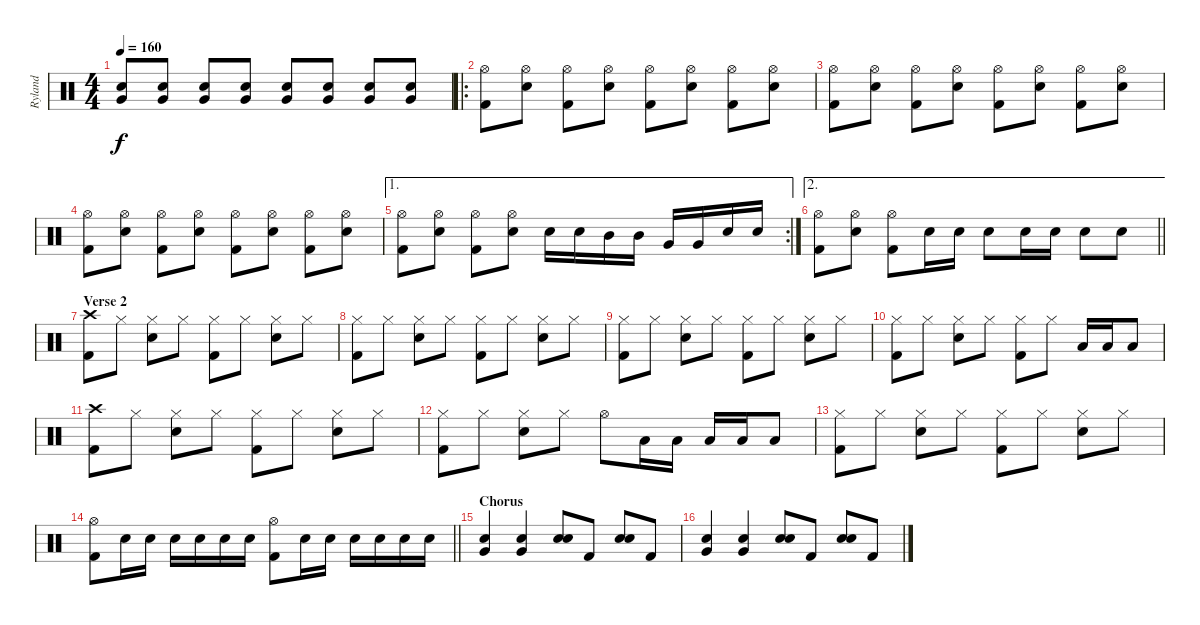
\track ("Ryland" "Ryland") {instrument percussion}
\staff {score}
\articulation defaults
\ts (4 4)
\tempo 160
\clef neutral
\ks c
("Very Low Tom (hit)" "Electric Snare (hit)").8{dy f} ("Very Low Tom (hit)" "Electric Snare (hit)").8 ("Very Low Tom (hit)" "Electric Snare (hit)").8 ("Very Low Tom (hit)" "Electric Snare (hit)").8 ("Very Low Tom (hit)" "Electric Snare (hit)").8 ("Very Low Tom (hit)" "Electric Snare (hit)").8 ("Very Low Tom (hit)" "Electric Snare (hit)").8 ("Very Low Tom (hit)" "Electric Snare (hit)").8 |
\ro
("Hi-Hat (open)" "Kick (hit) 2").8 ("Hi-Hat (open)" "Electric Snare (hit)").8 ("Hi-Hat (open)" "Kick (hit) 2").8 ("Hi-Hat (open)" "Electric Snare (hit)").8 ("Hi-Hat (open)" "Kick (hit) 2").8 ("Hi-Hat (open)" "Electric Snare (hit)").8 ("Hi-Hat (open)" "Kick (hit) 2").8 ("Hi-Hat (open)" "Electric Snare (hit)").8 |
("Hi-Hat (open)" "Kick (hit) 2").8 ("Hi-Hat (open)" "Electric Snare (hit)").8 ("Hi-Hat (open)" "Kick (hit) 2").8 ("Hi-Hat (open)" "Electric Snare (hit)").8 ("Hi-Hat (open)" "Kick (hit) 2").8 ("Hi-Hat (open)" "Electric Snare (hit)").8 ("Hi-Hat (open)" "Kick (hit) 2").8 ("Hi-Hat (open)" "Electric Snare (hit)").8 |
("Hi-Hat (open)" "Kick (hit) 2").8 ("Hi-Hat (open)" "Electric Snare (hit)").8 ("Hi-Hat (open)" "Kick (hit) 2").8 ("Hi-Hat (open)" "Electric Snare (hit)").8 ("Hi-Hat (open)" "Kick (hit) 2").8 ("Hi-Hat (open)" "Electric Snare (hit)").8 ("Hi-Hat (open)" "Kick (hit) 2").8 ("Hi-Hat (open)" "Electric Snare (hit)").8 |
\ae 1
\rc 2
("Hi-Hat (open)" "Kick (hit) 2").8 ("Hi-Hat (open)" "Electric Snare (hit)").8 ("Hi-Hat (open)" "Kick (hit) 2").8 ("Hi-Hat (open)" "Electric Snare (hit)").8 "Electric Snare (hit)".16 "Electric Snare (hit)".16 "Mid Tom (hit)".16 "Mid Tom (hit)".16 "Very Low Tom (hit)".16 "Very Low Tom (hit)".16 "Electric Snare (hit)".16 "Electric Snare (hit)".16 |
\ae 2
\barLineRight lightlight
("Hi-Hat (open)" "Kick (hit) 2").8 ("Hi-Hat (open)" "Electric Snare (hit)").8 ("Hi-Hat (open)" "Kick (hit) 2").8 "Electric Snare (hit)".16 "Electric Snare (hit)".16 "Electric Snare (hit)".8 "Electric Snare (hit)".16 "Electric Snare (hit)".16 "Electric Snare (hit)".8 "Electric Snare (hit)".8 |
\section ("" "Verse 2")
("Crash high (hit)" "Kick (hit) 2").8 "Hi-Hat (closed)".8 ("Hi-Hat (closed)" "Electric Snare (hit)").8 "Hi-Hat (closed)".8 ("Hi-Hat (closed)" "Kick (hit) 2").8 "Hi-Hat (closed)".8 ("Hi-Hat (closed)" "Electric Snare (hit)").8 "Hi-Hat (closed)".8 |
("Hi-Hat (closed)" "Kick (hit) 2").8 "Hi-Hat (closed)".8 ("Hi-Hat (closed)" "Electric Snare (hit)").8 "Hi-Hat (closed)".8 ("Hi-Hat (closed)" "Kick (hit) 2").8 "Hi-Hat (closed)".8 ("Hi-Hat (closed)" "Electric Snare (hit)").8 "Hi-Hat (closed)".8 |
("Hi-Hat (closed)" "Kick (hit) 2").8 "Hi-Hat (closed)".8 ("Hi-Hat (closed)" "Electric Snare (hit)").8 "Hi-Hat (closed)".8 ("Hi-Hat (closed)" "Kick (hit) 2").8 "Hi-Hat (closed)".8 ("Hi-Hat (closed)" "Electric Snare (hit)").8 "Hi-Hat (closed)".8 |
("Hi-Hat (closed)" "Kick (hit) 2").8 "Hi-Hat (closed)".8 ("Hi-Hat (closed)" "Electric Snare (hit)").8 "Hi-Hat (closed)".8 ("Hi-Hat (closed)" "Kick (hit) 2").8 "Hi-Hat (closed)".8 "Low Tom (hit)".16 "Low Tom (hit)".16 "Low Tom (hit)".8 |
("Crash high (hit)" "Kick (hit) 2").8 "Hi-Hat (closed)".8 ("Hi-Hat (closed)" "Electric Snare (hit)").8 "Hi-Hat (closed)".8 ("Hi-Hat (closed)" "Kick (hit) 2").8 "Hi-Hat (closed)".8 ("Hi-Hat (closed)" "Electric Snare (hit)").8 "Hi-Hat (closed)".8 |
("Hi-Hat (closed)" "Kick (hit) 2").8 "Hi-Hat (closed)".8 ("Hi-Hat (closed)" "Electric Snare (hit)").8 "Hi-Hat (closed)".8 "Hi-Hat (open)".8 "Low Tom (hit)".16 "Low Tom (hit)".16 "Low Tom (hit)".16 "Low Tom (hit)".16 "Low Tom (hit)".8 |
("Hi-Hat (closed)" "Kick (hit) 2").8 "Hi-Hat (closed)".8 ("Hi-Hat (closed)" "Electric Snare (hit)").8 "Hi-Hat (closed)".8 ("Hi-Hat (closed)" "Kick (hit) 2").8 "Hi-Hat (closed)".8 ("Hi-Hat (closed)" "Electric Snare (hit)").8 "Hi-Hat (closed)".8 |
\barLineRight lightlight
("Hi-Hat (open)" "Kick (hit) 2").8 "Electric Snare (hit)".16 "Electric Snare (hit)".16 "Electric Snare (hit)".16 "Electric Snare (hit)".16 "Electric Snare (hit)".16 "Electric Snare (hit)".16 ("Hi-Hat (open)" "Kick (hit) 2").8 "Electric Snare (hit)".16 "Electric Snare (hit)".16 "Electric Snare (hit)".16 "Electric Snare (hit)".16 "Electric Snare (hit)".16 "Electric Snare (hit)".16 |
\section ("" "Chorus")
("Very Low Tom (hit)" "Electric Snare (hit)").4 ("Very Low Tom (hit)" "Electric Snare (hit)").4 ("Electric Snare (hit)" "Electric Snare (hit)").8 "Kick (hit) 2".8 ("Electric Snare (hit)" "Electric Snare (hit)").8 "Kick (hit) 2".8 |
("Very Low Tom (hit)" "Electric Snare (hit)").4 ("Very Low Tom (hit)" "Electric Snare (hit)").4 ("Electric Snare (hit)" "Electric Snare (hit)").8 "Kick (hit) 2".8 ("Electric Snare (hit)" "Electric Snare (hit)").8 "Kick (hit) 2".8
